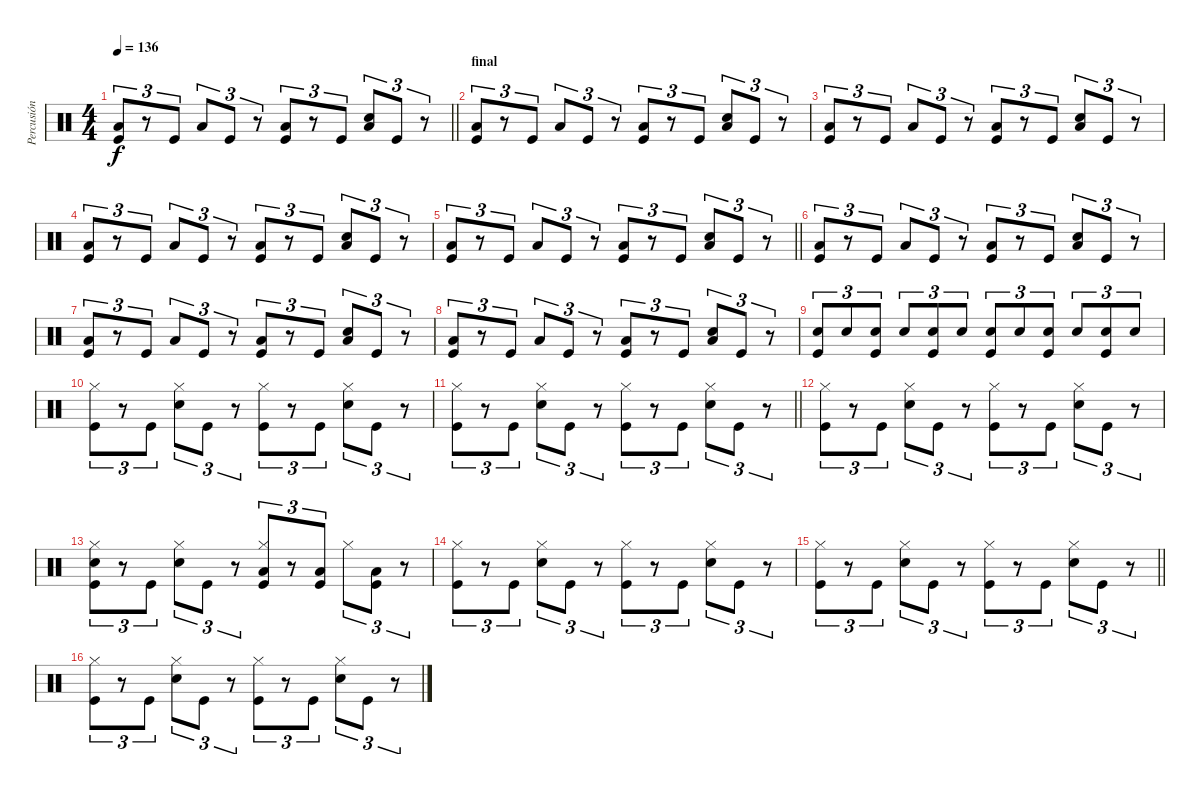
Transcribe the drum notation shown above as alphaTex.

\track ("Percusión" "Percusión") {instrument percussion}
\staff {score}
\articulation defaults
\ts (4 4)
\tempo 136
\clef neutral
\barLineRight lightlight
\ks c
("Low Floor Tom (hit)" "Kick (hit)").8{tu (3 2) dy f} r.8{tu (3 2)} "Kick (hit)".8{tu (3 2)} "Low Floor Tom (hit)".8{tu (3 2)} "Kick (hit)".8{tu (3 2)} r.8{tu (3 2)} ("Low Floor Tom (hit)" "Kick (hit)").8{tu (3 2)} r.8{tu (3 2)} "Kick (hit)".8{tu (3 2)} ("Snare (hit) 2" "Low Floor Tom (hit)").8{tu (3 2)} "Kick (hit)".8{tu (3 2)} r.8{tu (3 2)} |
\section ("" "final")
("Low Floor Tom (hit)" "Kick (hit)").8{tu (3 2)} r.8{tu (3 2)} "Kick (hit)".8{tu (3 2)} "Low Floor Tom (hit)".8{tu (3 2)} "Kick (hit)".8{tu (3 2)} r.8{tu (3 2)} ("Low Floor Tom (hit)" "Kick (hit)").8{tu (3 2)} r.8{tu (3 2)} "Kick (hit)".8{tu (3 2)} ("Snare (hit) 2" "Low Floor Tom (hit)").8{tu (3 2)} "Kick (hit)".8{tu (3 2)} r.8{tu (3 2)} |
("Low Floor Tom (hit)" "Kick (hit)").8{tu (3 2)} r.8{tu (3 2)} "Kick (hit)".8{tu (3 2)} "Low Floor Tom (hit)".8{tu (3 2)} "Kick (hit)".8{tu (3 2)} r.8{tu (3 2)} ("Low Floor Tom (hit)" "Kick (hit)").8{tu (3 2)} r.8{tu (3 2)} "Kick (hit)".8{tu (3 2)} ("Snare (hit) 2" "Low Floor Tom (hit)").8{tu (3 2)} "Kick (hit)".8{tu (3 2)} r.8{tu (3 2)} |
("Low Floor Tom (hit)" "Kick (hit)").8{tu (3 2)} r.8{tu (3 2)} "Kick (hit)".8{tu (3 2)} "Low Floor Tom (hit)".8{tu (3 2)} "Kick (hit)".8{tu (3 2)} r.8{tu (3 2)} ("Low Floor Tom (hit)" "Kick (hit)").8{tu (3 2)} r.8{tu (3 2)} "Kick (hit)".8{tu (3 2)} ("Snare (hit) 2" "Low Floor Tom (hit)").8{tu (3 2)} "Kick (hit)".8{tu (3 2)} r.8{tu (3 2)} |
\barLineRight lightlight
("Low Floor Tom (hit)" "Kick (hit)").8{tu (3 2)} r.8{tu (3 2)} "Kick (hit)".8{tu (3 2)} "Low Floor Tom (hit)".8{tu (3 2)} "Kick (hit)".8{tu (3 2)} r.8{tu (3 2)} ("Low Floor Tom (hit)" "Kick (hit)").8{tu (3 2)} r.8{tu (3 2)} "Kick (hit)".8{tu (3 2)} ("Snare (hit) 2" "Low Floor Tom (hit)").8{tu (3 2)} "Kick (hit)".8{tu (3 2)} r.8{tu (3 2)} |
("Low Floor Tom (hit)" "Kick (hit)").8{tu (3 2)} r.8{tu (3 2)} "Kick (hit)".8{tu (3 2)} "Low Floor Tom (hit)".8{tu (3 2)} "Kick (hit)".8{tu (3 2)} r.8{tu (3 2)} ("Low Floor Tom (hit)" "Kick (hit)").8{tu (3 2)} r.8{tu (3 2)} "Kick (hit)".8{tu (3 2)} ("Snare (hit) 2" "Low Floor Tom (hit)").8{tu (3 2)} "Kick (hit)".8{tu (3 2)} r.8{tu (3 2)} |
("Low Floor Tom (hit)" "Kick (hit)").8{tu (3 2)} r.8{tu (3 2)} "Kick (hit)".8{tu (3 2)} "Low Floor Tom (hit)".8{tu (3 2)} "Kick (hit)".8{tu (3 2)} r.8{tu (3 2)} ("Low Floor Tom (hit)" "Kick (hit)").8{tu (3 2)} r.8{tu (3 2)} "Kick (hit)".8{tu (3 2)} ("Snare (hit) 2" "Low Floor Tom (hit)").8{tu (3 2)} "Kick (hit)".8{tu (3 2)} r.8{tu (3 2)} |
("Low Floor Tom (hit)" "Kick (hit)").8{tu (3 2)} r.8{tu (3 2)} "Kick (hit)".8{tu (3 2)} "Low Floor Tom (hit)".8{tu (3 2)} "Kick (hit)".8{tu (3 2)} r.8{tu (3 2)} ("Low Floor Tom (hit)" "Kick (hit)").8{tu (3 2)} r.8{tu (3 2)} "Kick (hit)".8{tu (3 2)} ("Snare (hit) 2" "Low Floor Tom (hit)").8{tu (3 2)} "Kick (hit)".8{tu (3 2)} r.8{tu (3 2)} |
("Snare (hit) 2" "Kick (hit)").8{tu (3 2)} "Snare (hit) 2".8{tu (3 2)} ("Snare (hit) 2" "Kick (hit)").8{tu (3 2)} "Snare (hit) 2".8{tu (3 2)} ("Snare (hit) 2" "Kick (hit)").8{tu (3 2)} "Snare (hit) 2".8{tu (3 2)} ("Snare (hit) 2" "Kick (hit)").8{tu (3 2)} "Snare (hit) 2".8{tu (3 2)} ("Snare (hit) 2" "Kick (hit)").8{tu (3 2)} "Snare (hit) 2".8{tu (3 2)} ("Snare (hit) 2" "Kick (hit)").8{tu (3 2)} "Snare (hit) 2".8{tu (3 2)} |
("Hi-Hat (closed)" "Kick (hit)").8{tu (3 2)} r.8{tu (3 2)} "Kick (hit)".8{tu (3 2)} ("Hi-Hat (closed)" "Snare (hit) 2").8{tu (3 2)} "Kick (hit)".8{tu (3 2)} r.8{tu (3 2)} ("Hi-Hat (closed)" "Kick (hit)").8{tu (3 2)} r.8{tu (3 2)} "Kick (hit)".8{tu (3 2)} ("Hi-Hat (closed)" "Snare (hit) 2").8{tu (3 2)} "Kick (hit)".8{tu (3 2)} r.8{tu (3 2)} |
\barLineRight lightlight
("Hi-Hat (closed)" "Kick (hit)").8{tu (3 2)} r.8{tu (3 2)} "Kick (hit)".8{tu (3 2)} ("Hi-Hat (closed)" "Snare (hit) 2").8{tu (3 2)} "Kick (hit)".8{tu (3 2)} r.8{tu (3 2)} ("Hi-Hat (closed)" "Kick (hit)").8{tu (3 2)} r.8{tu (3 2)} "Kick (hit)".8{tu (3 2)} ("Hi-Hat (closed)" "Snare (hit) 2").8{tu (3 2)} "Kick (hit)".8{tu (3 2)} r.8{tu (3 2)} |
("Hi-Hat (closed)" "Kick (hit)").8{tu (3 2)} r.8{tu (3 2)} "Kick (hit)".8{tu (3 2)} ("Hi-Hat (closed)" "Snare (hit) 2").8{tu (3 2)} "Kick (hit)".8{tu (3 2)} r.8{tu (3 2)} ("Hi-Hat (closed)" "Kick (hit)").8{tu (3 2)} r.8{tu (3 2)} "Kick (hit)".8{tu (3 2)} ("Hi-Hat (closed)" "Snare (hit) 2").8{tu (3 2)} "Kick (hit)".8{tu (3 2)} r.8{tu (3 2)} |
("Hi-Hat (closed)" "Snare (hit) 2" "Kick (hit)").8{tu (3 2)} r.8{tu (3 2)} "Kick (hit)".8{tu (3 2)} ("Hi-Hat (closed)" "Snare (hit) 2").8{tu (3 2)} "Kick (hit)".8{tu (3 2)} r.8{tu (3 2)} ("Hi-Hat (closed)" "Low Tom (hit)" "Kick (hit)").8{tu (3 2)} r.8{tu (3 2)} ("Low Tom (hit)" "Kick (hit)").8{tu (3 2)} "Hi-Hat (closed)".8{tu (3 2)} ("Low Tom (hit)" "Kick (hit)").8{tu (3 2)} r.8{tu (3 2)} |
("Hi-Hat (closed)" "Kick (hit)").8{tu (3 2)} r.8{tu (3 2)} "Kick (hit)".8{tu (3 2)} ("Hi-Hat (closed)" "Snare (hit) 2").8{tu (3 2)} "Kick (hit)".8{tu (3 2)} r.8{tu (3 2)} ("Hi-Hat (closed)" "Kick (hit)").8{tu (3 2)} r.8{tu (3 2)} "Kick (hit)".8{tu (3 2)} ("Hi-Hat (closed)" "Snare (hit) 2").8{tu (3 2)} "Kick (hit)".8{tu (3 2)} r.8{tu (3 2)} |
\barLineRight lightlight
("Hi-Hat (closed)" "Kick (hit)").8{tu (3 2)} r.8{tu (3 2)} "Kick (hit)".8{tu (3 2)} ("Hi-Hat (closed)" "Snare (hit) 2").8{tu (3 2)} "Kick (hit)".8{tu (3 2)} r.8{tu (3 2)} ("Hi-Hat (closed)" "Kick (hit)").8{tu (3 2)} r.8{tu (3 2)} "Kick (hit)".8{tu (3 2)} ("Hi-Hat (closed)" "Snare (hit) 2").8{tu (3 2)} "Kick (hit)".8{tu (3 2)} r.8{tu (3 2)} |
("Hi-Hat (closed)" "Kick (hit)").8{tu (3 2)} r.8{tu (3 2)} "Kick (hit)".8{tu (3 2)} ("Hi-Hat (closed)" "Snare (hit) 2").8{tu (3 2)} "Kick (hit)".8{tu (3 2)} r.8{tu (3 2)} ("Hi-Hat (closed)" "Kick (hit)").8{tu (3 2)} r.8{tu (3 2)} "Kick (hit)".8{tu (3 2)} ("Hi-Hat (closed)" "Snare (hit) 2").8{tu (3 2)} "Kick (hit)".8{tu (3 2)} r.8{tu (3 2)}
